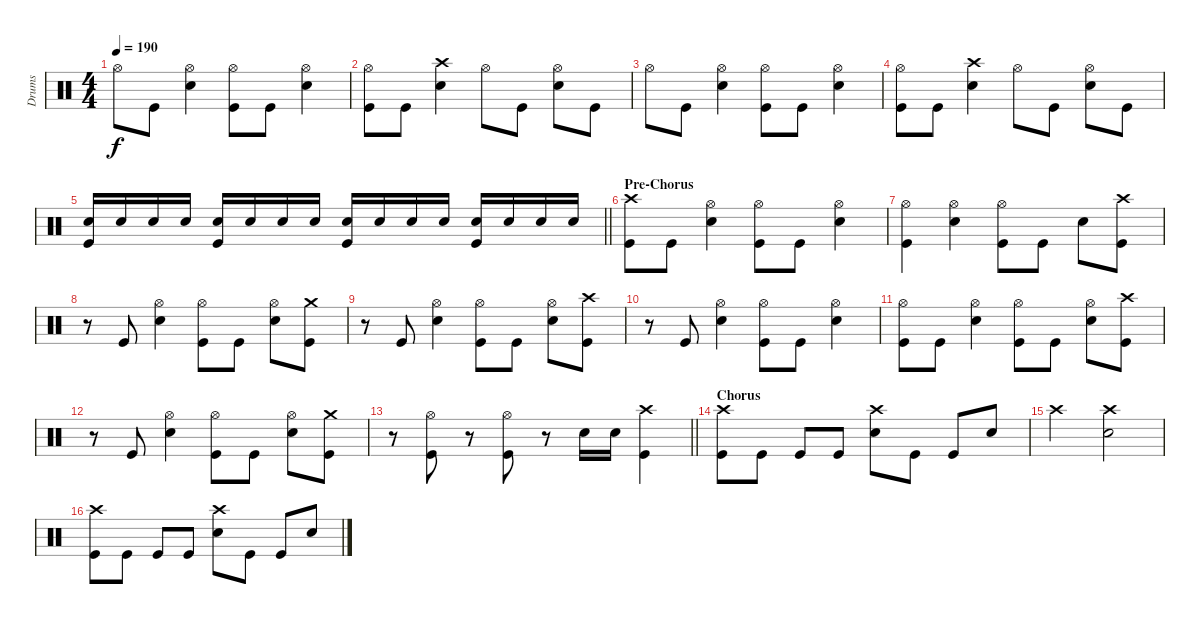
\track ("Drums" "Drums") {instrument percussion}
\staff {score}
\articulation defaults
\ts (4 4)
\tempo 190
\clef neutral
\ks c "Hi-Hat (open)".8{dy f} "Kick (hit)".8
("Hi-Hat (open)" "Snare (hit) 2").4 ("Hi-Hat (open)" "Kick (hit)").8 "Kick (hit)".8 ("Hi-Hat (open)" "Snare (hit) 2").4 |
("Hi-Hat (open)" "Kick (hit)").8 "Kick (hit)".8 ("Crash high (hit)" "Snare (hit) 2").4 "Hi-Hat (open)".8 "Kick (hit)".8 ("Hi-Hat (open)" "Snare (hit) 2").8 "Kick (hit)".8 |
"Hi-Hat (open)".8 "Kick (hit)".8 ("Hi-Hat (open)" "Snare (hit) 2").4 ("Hi-Hat (open)" "Kick (hit)").8 "Kick (hit)".8 ("Hi-Hat (open)" "Snare (hit) 2").4 |
("Hi-Hat (open)" "Kick (hit)").8 "Kick (hit)".8 ("Crash high (hit)" "Snare (hit) 2").4 "Hi-Hat (open)".8 "Kick (hit)".8 ("Hi-Hat (open)" "Snare (hit) 2").8 "Kick (hit)".8 |
\barLineRight lightlight
("Snare (hit) 2" "Kick (hit)").16 "Snare (hit) 2".16 "Snare (hit) 2".16 "Snare (hit) 2".16 ("Snare (hit) 2" "Kick (hit)").16 "Snare (hit) 2".16 "Snare (hit) 2".16 "Snare (hit) 2".16 ("Snare (hit) 2" "Kick (hit)").16 "Snare (hit) 2".16 "Snare (hit) 2".16 "Snare (hit) 2".16 ("Snare (hit) 2" "Kick (hit)").16 "Snare (hit) 2".16 "Snare (hit) 2".16 "Snare (hit) 2".16 |
\section ("" "Pre-Chorus")
("Crash high (hit)" "Kick (hit)").8 "Kick (hit)".8 ("Hi-Hat (open)" "Snare (hit) 2").4 ("Hi-Hat (open)" "Kick (hit)").8 "Kick (hit)".8 ("Hi-Hat (open)" "Snare (hit) 2").4 |
("Hi-Hat (open)" "Kick (hit)").4 ("Hi-Hat (open)" "Snare (hit) 2").4 ("Hi-Hat (open)" "Kick (hit)").8 "Kick (hit)".8 "Snare (hit) 2".8 ("Crash high (hit)" "Kick (hit)").8 |
r.8 "Kick (hit)".8 ("Hi-Hat (open)" "Snare (hit) 2").4 ("Hi-Hat (open)" "Kick (hit)").8 "Kick (hit)".8 ("Hi-Hat (open)" "Snare (hit) 2").8 ("Crash medium (hit)" "Kick (hit)").8 |
r.8 "Kick (hit)".8 ("Hi-Hat (open)" "Snare (hit) 2").4 ("Hi-Hat (open)" "Kick (hit)").8 "Kick (hit)".8 ("Hi-Hat (open)" "Snare (hit) 2").8 ("Crash high (hit)" "Kick (hit)").8 |
r.8 "Kick (hit)".8 ("Hi-Hat (open)" "Snare (hit) 2").4 ("Hi-Hat (open)" "Kick (hit)").8 "Kick (hit)".8 ("Hi-Hat (open)" "Snare (hit) 2").4 |
("Hi-Hat (open)" "Kick (hit)").8 "Kick (hit)".8 ("Hi-Hat (open)" "Snare (hit) 2").4 ("Hi-Hat (open)" "Kick (hit)").8 "Kick (hit)".8 ("Hi-Hat (open)" "Snare (hit) 2").8 ("Crash high (hit)" "Kick (hit)").8 |
r.8 "Kick (hit)".8 ("Hi-Hat (open)" "Snare (hit) 2").4 ("Hi-Hat (open)" "Kick (hit)").8 "Kick (hit)".8 ("Hi-Hat (open)" "Snare (hit) 2").8 ("Crash medium (hit)" "Kick (hit)").8 |
\barLineRight lightlight
r.8 ("Hi-Hat (open)" "Kick (hit)").8 r.8 ("Hi-Hat (open)" "Kick (hit)").8 r.8 "Snare (hit) 2".16 "Snare (hit) 2".16 ("Crash high (hit)" "Kick (hit)").4 |
\section ("" "Chorus")
("Crash high (hit)" "Kick (hit)").8 "Kick (hit)".8 "Kick (hit)".8 "Kick (hit)".8 ("Crash high (hit)" "Snare (hit) 2").8 "Kick (hit)".8 "Kick (hit)".8 "Snare (hit) 2".8 |
"Crash high (hit)".2 ("Crash high (hit)" "Snare (hit) 2").2 |
("Crash high (hit)" "Kick (hit)").8 "Kick (hit)".8 "Kick (hit)".8 "Kick (hit)".8 ("Crash high (hit)" "Snare (hit) 2").8 "Kick (hit)".8 "Kick (hit)".8 "Snare (hit) 2".8
